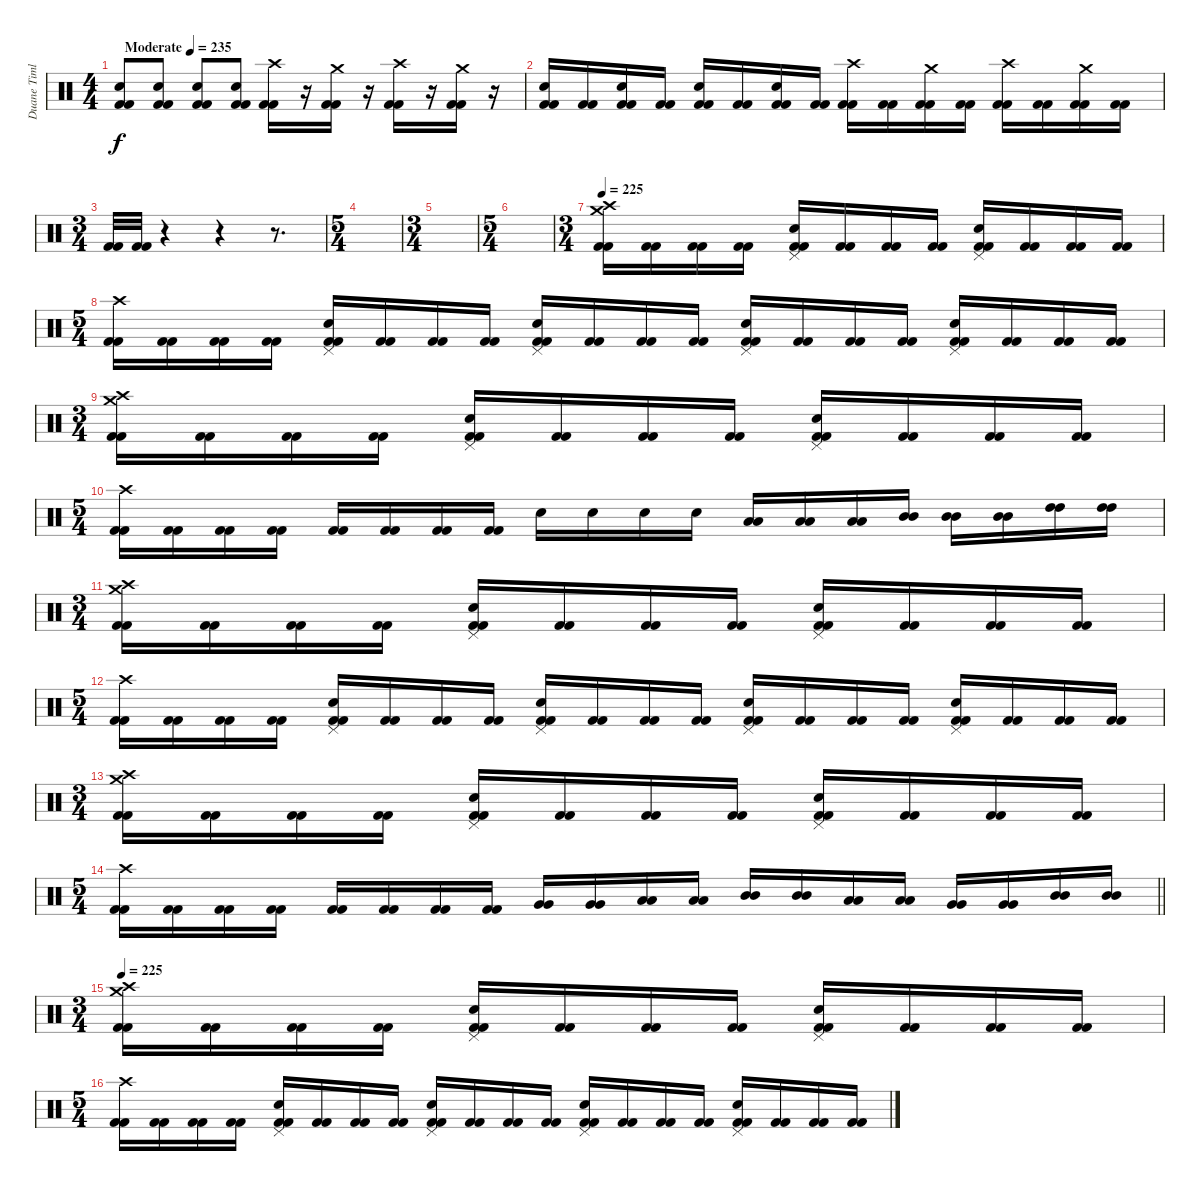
\track ("Duane Timlin" "Duane Timl") {instrument percussion}
\staff {score}
\articulation defaults
\ts (4 4)
\tempo (235 "Moderate")
\clef neutral
\ks c
("Electric Snare (hit)" "Kick (hit) 2" "Kick (hit) 2").8{dy f} ("Electric Snare (hit)" "Kick (hit) 2" "Kick (hit) 2").8 ("Electric Snare (hit)" "Kick (hit) 2" "Kick (hit) 2").8 ("Electric Snare (hit)" "Kick (hit) 2" "Kick (hit) 2").8 ("Crash high (hit)" "Kick (hit) 2" "Kick (hit) 2").16 r.16 ("Crash medium (hit)" "Kick (hit) 2" "Kick (hit) 2").16 r.16 ("Crash high (hit)" "Kick (hit) 2" "Kick (hit) 2").16 r.16 ("Crash medium (hit)" "Kick (hit) 2" "Kick (hit) 2").16 r.16 |
("Electric Snare (hit)" "Kick (hit) 2" "Kick (hit) 2").16 ("Kick (hit) 2" "Kick (hit) 2").16 ("Electric Snare (hit)" "Kick (hit) 2" "Kick (hit) 2").16 ("Kick (hit) 2" "Kick (hit) 2").16 ("Electric Snare (hit)" "Kick (hit) 2" "Kick (hit) 2").16 ("Kick (hit) 2" "Kick (hit) 2").16 ("Electric Snare (hit)" "Kick (hit) 2" "Kick (hit) 2").16 ("Kick (hit) 2" "Kick (hit) 2").16 ("Crash high (hit)" "Kick (hit) 2" "Kick (hit) 2").16 ("Kick (hit) 2" "Kick (hit) 2").16 ("Crash medium (hit)" "Kick (hit) 2" "Kick (hit) 2").16 ("Kick (hit) 2" "Kick (hit) 2").16 ("Crash high (hit)" "Kick (hit) 2" "Kick (hit) 2").16 ("Kick (hit) 2" "Kick (hit) 2").16 ("Crash medium (hit)" "Kick (hit) 2" "Kick (hit) 2").16 ("Kick (hit) 2" "Kick (hit) 2").16 |
\ts (3 4)
("Kick (hit) 2" "Kick (hit) 2").32 ("Kick (hit) 2" "Kick (hit) 2").32 r.4 r.4 r.8{d} |
\ts (5 4)
|
\ts (3 4)
|
\ts (5 4)
|
\ts (3 4)
\tempo 225
("Crash medium (hit)" "Crash high (hit)" "Kick (hit) 2" "Kick (hit) 2").16 ("Kick (hit) 2" "Kick (hit) 2").16 ("Kick (hit) 2" "Kick (hit) 2").16 ("Kick (hit) 2" "Kick (hit) 2").16 ("Pedal Hi-Hat (hit)" "Electric Snare (hit)" "Kick (hit) 2" "Kick (hit) 2").16 ("Kick (hit) 2" "Kick (hit) 2").16 ("Kick (hit) 2" "Kick (hit) 2").16 ("Kick (hit) 2" "Kick (hit) 2").16 ("Pedal Hi-Hat (hit)" "Electric Snare (hit)" "Kick (hit) 2" "Kick (hit) 2").16 ("Kick (hit) 2" "Kick (hit) 2").16 ("Kick (hit) 2" "Kick (hit) 2").16 ("Kick (hit) 2" "Kick (hit) 2").16 |
\ts (5 4)
("Crash high (hit)" "Kick (hit) 2" "Kick (hit) 2").16 ("Kick (hit) 2" "Kick (hit) 2").16 ("Kick (hit) 2" "Kick (hit) 2").16 ("Kick (hit) 2" "Kick (hit) 2").16 ("Pedal Hi-Hat (hit)" "Electric Snare (hit)" "Kick (hit) 2" "Kick (hit) 2").16 ("Kick (hit) 2" "Kick (hit) 2").16 ("Kick (hit) 2" "Kick (hit) 2").16 ("Kick (hit) 2" "Kick (hit) 2").16 ("Pedal Hi-Hat (hit)" "Electric Snare (hit)" "Kick (hit) 2" "Kick (hit) 2").16 ("Kick (hit) 2" "Kick (hit) 2").16 ("Kick (hit) 2" "Kick (hit) 2").16 ("Kick (hit) 2" "Kick (hit) 2").16 ("Pedal Hi-Hat (hit)" "Electric Snare (hit)" "Kick (hit) 2" "Kick (hit) 2").16 ("Kick (hit) 2" "Kick (hit) 2").16 ("Kick (hit) 2" "Kick (hit) 2").16 ("Kick (hit) 2" "Kick (hit) 2").16 ("Pedal Hi-Hat (hit)" "Electric Snare (hit)" "Kick (hit) 2" "Kick (hit) 2").16 ("Kick (hit) 2" "Kick (hit) 2").16 ("Kick (hit) 2" "Kick (hit) 2").16 ("Kick (hit) 2" "Kick (hit) 2").16 |
\ts (3 4)
("Crash medium (hit)" "Crash high (hit)" "Kick (hit) 2" "Kick (hit) 2").16 ("Kick (hit) 2" "Kick (hit) 2").16 ("Kick (hit) 2" "Kick (hit) 2").16 ("Kick (hit) 2" "Kick (hit) 2").16 ("Pedal Hi-Hat (hit)" "Electric Snare (hit)" "Kick (hit) 2" "Kick (hit) 2").16 ("Kick (hit) 2" "Kick (hit) 2").16 ("Kick (hit) 2" "Kick (hit) 2").16 ("Kick (hit) 2" "Kick (hit) 2").16 ("Pedal Hi-Hat (hit)" "Electric Snare (hit)" "Kick (hit) 2" "Kick (hit) 2").16 ("Kick (hit) 2" "Kick (hit) 2").16 ("Kick (hit) 2" "Kick (hit) 2").16 ("Kick (hit) 2" "Kick (hit) 2").16 |
\ts (5 4)
("Crash high (hit)" "Kick (hit) 2" "Kick (hit) 2").16 ("Kick (hit) 2" "Kick (hit) 2").16 ("Kick (hit) 2" "Kick (hit) 2").16 ("Kick (hit) 2" "Kick (hit) 2").16 ("Kick (hit) 2" "Kick (hit) 2").16 ("Kick (hit) 2" "Kick (hit) 2").16 ("Kick (hit) 2" "Kick (hit) 2").16 ("Kick (hit) 2" "Kick (hit) 2").16 "Electric Snare (hit)".16 "Electric Snare (hit)".16 "Electric Snare (hit)".16 "Electric Snare (hit)".16 ("Low Tom (hit)" "Low Tom (hit)").16 ("Low Tom (hit)" "Low Tom (hit)").16 ("Low Tom (hit)" "Low Tom (hit)").16 ("Mid Tom (hit)" "Mid Tom (hit)").16 ("Mid Tom (hit)" "Mid Tom (hit)").16 ("Mid Tom (hit)" "Mid Tom (hit)").16 ("High Tom (hit)" "High Tom (hit)").16 ("High Tom (hit)" "High Tom (hit)").16 |
\ts (3 4)
("Crash medium (hit)" "Crash high (hit)" "Kick (hit) 2" "Kick (hit) 2").16 ("Kick (hit) 2" "Kick (hit) 2").16 ("Kick (hit) 2" "Kick (hit) 2").16 ("Kick (hit) 2" "Kick (hit) 2").16 ("Pedal Hi-Hat (hit)" "Electric Snare (hit)" "Kick (hit) 2" "Kick (hit) 2").16 ("Kick (hit) 2" "Kick (hit) 2").16 ("Kick (hit) 2" "Kick (hit) 2").16 ("Kick (hit) 2" "Kick (hit) 2").16 ("Pedal Hi-Hat (hit)" "Electric Snare (hit)" "Kick (hit) 2" "Kick (hit) 2").16 ("Kick (hit) 2" "Kick (hit) 2").16 ("Kick (hit) 2" "Kick (hit) 2").16 ("Kick (hit) 2" "Kick (hit) 2").16 |
\ts (5 4)
("Crash high (hit)" "Kick (hit) 2" "Kick (hit) 2").16 ("Kick (hit) 2" "Kick (hit) 2").16 ("Kick (hit) 2" "Kick (hit) 2").16 ("Kick (hit) 2" "Kick (hit) 2").16 ("Pedal Hi-Hat (hit)" "Electric Snare (hit)" "Kick (hit) 2" "Kick (hit) 2").16 ("Kick (hit) 2" "Kick (hit) 2").16 ("Kick (hit) 2" "Kick (hit) 2").16 ("Kick (hit) 2" "Kick (hit) 2").16 ("Pedal Hi-Hat (hit)" "Electric Snare (hit)" "Kick (hit) 2" "Kick (hit) 2").16 ("Kick (hit) 2" "Kick (hit) 2").16 ("Kick (hit) 2" "Kick (hit) 2").16 ("Kick (hit) 2" "Kick (hit) 2").16 ("Pedal Hi-Hat (hit)" "Electric Snare (hit)" "Kick (hit) 2" "Kick (hit) 2").16 ("Kick (hit) 2" "Kick (hit) 2").16 ("Kick (hit) 2" "Kick (hit) 2").16 ("Kick (hit) 2" "Kick (hit) 2").16 ("Pedal Hi-Hat (hit)" "Electric Snare (hit)" "Kick (hit) 2" "Kick (hit) 2").16 ("Kick (hit) 2" "Kick (hit) 2").16 ("Kick (hit) 2" "Kick (hit) 2").16 ("Kick (hit) 2" "Kick (hit) 2").16 |
\ts (3 4)
("Crash medium (hit)" "Crash high (hit)" "Kick (hit) 2" "Kick (hit) 2").16 ("Kick (hit) 2" "Kick (hit) 2").16 ("Kick (hit) 2" "Kick (hit) 2").16 ("Kick (hit) 2" "Kick (hit) 2").16 ("Pedal Hi-Hat (hit)" "Electric Snare (hit)" "Kick (hit) 2" "Kick (hit) 2").16 ("Kick (hit) 2" "Kick (hit) 2").16 ("Kick (hit) 2" "Kick (hit) 2").16 ("Kick (hit) 2" "Kick (hit) 2").16 ("Pedal Hi-Hat (hit)" "Electric Snare (hit)" "Kick (hit) 2" "Kick (hit) 2").16 ("Kick (hit) 2" "Kick (hit) 2").16 ("Kick (hit) 2" "Kick (hit) 2").16 ("Kick (hit) 2" "Kick (hit) 2").16 |
\ts (5 4)
\barLineRight lightlight
("Crash high (hit)" "Kick (hit) 2" "Kick (hit) 2").16 ("Kick (hit) 2" "Kick (hit) 2").16 ("Kick (hit) 2" "Kick (hit) 2").16 ("Kick (hit) 2" "Kick (hit) 2").16 ("Kick (hit) 2" "Kick (hit) 2").16 ("Kick (hit) 2" "Kick (hit) 2").16 ("Kick (hit) 2" "Kick (hit) 2").16 ("Kick (hit) 2" "Kick (hit) 2").16 ("Very Low Tom (hit)" "Very Low Tom (hit)").16 ("Very Low Tom (hit)" "Very Low Tom (hit)").16 ("Low Tom (hit)" "Low Tom (hit)").16 ("Low Tom (hit)" "Low Tom (hit)").16 ("Mid Tom (hit)" "Mid Tom (hit)").16 ("Mid Tom (hit)" "Mid Tom (hit)").16 ("Low Tom (hit)" "Low Tom (hit)").16 ("Low Tom (hit)" "Low Tom (hit)").16 ("Very Low Tom (hit)" "Very Low Tom (hit)").16 ("Very Low Tom (hit)" "Very Low Tom (hit)").16 ("Mid Tom (hit)" "Mid Tom (hit)").16 ("Mid Tom (hit)" "Mid Tom (hit)").16 |
\ts (3 4)
\tempo 225
("Crash medium (hit)" "Crash high (hit)" "Kick (hit) 2" "Kick (hit) 2").16 ("Kick (hit) 2" "Kick (hit) 2").16 ("Kick (hit) 2" "Kick (hit) 2").16 ("Kick (hit) 2" "Kick (hit) 2").16 ("Pedal Hi-Hat (hit)" "Electric Snare (hit)" "Kick (hit) 2" "Kick (hit) 2").16 ("Kick (hit) 2" "Kick (hit) 2").16 ("Kick (hit) 2" "Kick (hit) 2").16 ("Kick (hit) 2" "Kick (hit) 2").16 ("Pedal Hi-Hat (hit)" "Electric Snare (hit)" "Kick (hit) 2" "Kick (hit) 2").16 ("Kick (hit) 2" "Kick (hit) 2").16 ("Kick (hit) 2" "Kick (hit) 2").16 ("Kick (hit) 2" "Kick (hit) 2").16 |
\ts (5 4)
("Crash high (hit)" "Kick (hit) 2" "Kick (hit) 2").16 ("Kick (hit) 2" "Kick (hit) 2").16 ("Kick (hit) 2" "Kick (hit) 2").16 ("Kick (hit) 2" "Kick (hit) 2").16 ("Pedal Hi-Hat (hit)" "Electric Snare (hit)" "Kick (hit) 2" "Kick (hit) 2").16 ("Kick (hit) 2" "Kick (hit) 2").16 ("Kick (hit) 2" "Kick (hit) 2").16 ("Kick (hit) 2" "Kick (hit) 2").16 ("Pedal Hi-Hat (hit)" "Electric Snare (hit)" "Kick (hit) 2" "Kick (hit) 2").16 ("Kick (hit) 2" "Kick (hit) 2").16 ("Kick (hit) 2" "Kick (hit) 2").16 ("Kick (hit) 2" "Kick (hit) 2").16 ("Pedal Hi-Hat (hit)" "Electric Snare (hit)" "Kick (hit) 2" "Kick (hit) 2").16 ("Kick (hit) 2" "Kick (hit) 2").16 ("Kick (hit) 2" "Kick (hit) 2").16 ("Kick (hit) 2" "Kick (hit) 2").16 ("Pedal Hi-Hat (hit)" "Electric Snare (hit)" "Kick (hit) 2" "Kick (hit) 2").16 ("Kick (hit) 2" "Kick (hit) 2").16 ("Kick (hit) 2" "Kick (hit) 2").16 ("Kick (hit) 2" "Kick (hit) 2").16
